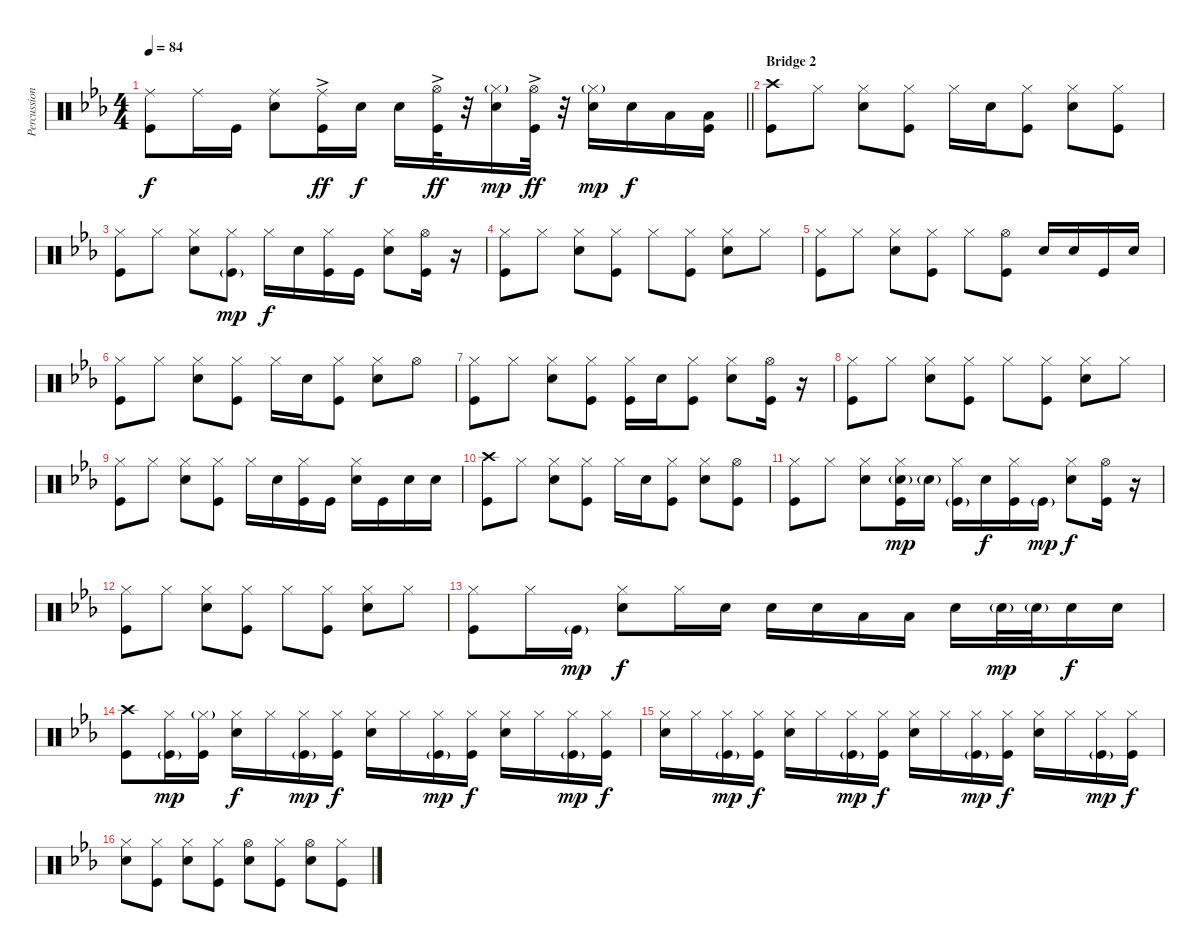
\track ("Percussion" "Percussion") {instrument percussion}
\staff {score}
\articulation defaults
\ts (4 4)
\tempo 84
\clef neutral
\barLineRight lightlight
\ks eb
("Ride (middle)" "Kick (hit)").8{dy f} "Ride (middle)".16 "Kick (hit)".16 ("Ride (middle)" "Snare (hit) 2").8 ("Ride (middle)" "Kick (hit)"{ac}).16{dy ff} "Snare (hit) 2".16{dy f} "Snare (hit) 2".16 ("Hi-Hat (open)" "Kick (hit)"{ac}).32{dy ff} r.32 ("Hi-Hat (closed)"{g} "Snare (hit) 2").16{dy mp} ("Hi-Hat (open)" "Kick (hit)"{ac}).32{dy ff} r.32 ("Hi-Hat (closed)"{g} "Snare (hit) 2").16{dy mp} "Snare (hit) 2".16{dy f} "Low Tom (hit)".16 ("Low Tom (hit)" "Kick (hit)").16 |
\section ("" "Bridge 2")
("Crash high (hit)" "Kick (hit)").8 "Hi-Hat (closed)".8 ("Hi-Hat (closed)" "Snare (hit) 2").8 ("Hi-Hat (closed)" "Kick (hit)").8 "Hi-Hat (closed)".16 "Snare (hit) 2".16 ("Hi-Hat (closed)" "Kick (hit)").8 ("Hi-Hat (closed)" "Snare (hit) 2").8 ("Hi-Hat (closed)" "Kick (hit)").8 |
("Hi-Hat (closed)" "Kick (hit)").8 "Hi-Hat (closed)".8 ("Hi-Hat (closed)" "Snare (hit) 2").8 ("Hi-Hat (closed)" "Kick (hit)"{g}).8{dy mp} "Hi-Hat (closed)".16{dy f} "Snare (hit) 2".16 ("Hi-Hat (closed)" "Kick (hit)").16 "Kick (hit)".16 ("Hi-Hat (closed)" "Snare (hit) 2").8 ("Hi-Hat (open)" "Kick (hit)").16 r.16 |
("Hi-Hat (closed)" "Kick (hit)").8 "Hi-Hat (closed)".8 ("Hi-Hat (closed)" "Snare (hit) 2").8 ("Hi-Hat (closed)" "Kick (hit)").8 "Hi-Hat (closed)".8 ("Hi-Hat (closed)" "Kick (hit)").8 ("Hi-Hat (closed)" "Snare (hit) 2").8 "Hi-Hat (closed)".8 |
("Hi-Hat (closed)" "Kick (hit)").8 "Hi-Hat (closed)".8 ("Hi-Hat (closed)" "Snare (hit) 2").8 ("Hi-Hat (closed)" "Kick (hit)").8 "Hi-Hat (closed)".8 ("Hi-Hat (open)" "Kick (hit)").8 "Snare (hit) 2".16 "Snare (hit) 2".16 "Kick (hit)".16 "Snare (hit) 2".16 |
("Hi-Hat (closed)" "Kick (hit)").8 "Hi-Hat (closed)".8 ("Hi-Hat (closed)" "Snare (hit) 2").8 ("Hi-Hat (closed)" "Kick (hit)").8 "Hi-Hat (closed)".16 "Snare (hit) 2".16 ("Hi-Hat (closed)" "Kick (hit)").8 ("Hi-Hat (closed)" "Snare (hit) 2").8 "Hi-Hat (open)".8 |
("Hi-Hat (closed)" "Kick (hit)").8 "Hi-Hat (closed)".8 ("Hi-Hat (closed)" "Snare (hit) 2").8 ("Hi-Hat (closed)" "Kick (hit)").8 ("Hi-Hat (closed)" "Kick (hit)").16 "Snare (hit) 2".16 ("Hi-Hat (closed)" "Kick (hit)").8 ("Hi-Hat (closed)" "Snare (hit) 2").8 ("Hi-Hat (open)" "Kick (hit)").16 r.16 |
("Hi-Hat (closed)" "Kick (hit)").8 "Hi-Hat (closed)".8 ("Hi-Hat (closed)" "Snare (hit) 2").8 ("Hi-Hat (closed)" "Kick (hit)").8 "Hi-Hat (closed)".8 ("Hi-Hat (closed)" "Kick (hit)").8 ("Hi-Hat (closed)" "Snare (hit) 2").8 "Hi-Hat (closed)".8 |
("Hi-Hat (closed)" "Kick (hit)").8 "Hi-Hat (closed)".8 ("Hi-Hat (closed)" "Snare (hit) 2").8 ("Hi-Hat (closed)" "Kick (hit)").8 "Hi-Hat (closed)".16 "Snare (hit) 2".16 ("Hi-Hat (closed)" "Kick (hit)").16 "Kick (hit)".16 ("Hi-Hat (closed)" "Snare (hit) 2").16 "Kick (hit)".16 "Snare (hit) 2".16 "Snare (hit) 2".16 |
("Crash high (hit)" "Kick (hit)").8 "Hi-Hat (closed)".8 ("Hi-Hat (closed)" "Snare (hit) 2").8 ("Hi-Hat (closed)" "Kick (hit)").8 "Hi-Hat (closed)".16 "Snare (hit) 2".16 ("Hi-Hat (closed)" "Kick (hit)").8 ("Hi-Hat (closed)" "Snare (hit) 2").8 ("Hi-Hat (open)" "Kick (hit)").8 |
("Hi-Hat (closed)" "Kick (hit)").8 "Hi-Hat (closed)".8 ("Hi-Hat (closed)" "Snare (hit) 2").8 ("Hi-Hat (closed)" "Snare (hit) 2"{g} "Kick (hit)").16{dy mp} "Snare (hit) 2"{g}.16 ("Hi-Hat (closed)" "Kick (hit)"{g}).16 "Snare (hit) 2".16{dy f} ("Hi-Hat (closed)" "Kick (hit)").16 "Kick (hit)"{g}.16{dy mp} ("Hi-Hat (closed)" "Snare (hit) 2").8{dy f} ("Hi-Hat (open)" "Kick (hit)").16 r.16 |
("Hi-Hat (closed)" "Kick (hit)").8 "Hi-Hat (closed)".8 ("Hi-Hat (closed)" "Snare (hit) 2").8 ("Hi-Hat (closed)" "Kick (hit)").8 "Hi-Hat (closed)".8 ("Hi-Hat (closed)" "Kick (hit)").8 ("Hi-Hat (closed)" "Snare (hit) 2").8 "Hi-Hat (closed)".8 |
("Hi-Hat (closed)" "Kick (hit)").8 "Hi-Hat (closed)".16 "Kick (hit)"{g}.16{dy mp} ("Hi-Hat (closed)" "Snare (hit) 2").8{dy f} "Hi-Hat (closed)".16 "Snare (hit) 2".16 "Snare (hit) 2".16 "Snare (hit) 2".16 "Low Tom (hit)".16 "Low Tom (hit)".16 "Snare (hit) 2".16 "Snare (hit) 2"{g}.32{dy mp} "Snare (hit) 2"{g}.32 "Snare (hit) 2".16{dy f} "Snare (hit) 2".16 |
("Crash high (hit)" "Kick (hit)").8 ("Hi-Hat (closed)" "Kick (hit)"{g}).16{dy mp} ("Hi-Hat (closed)"{g} "Kick (hit)").16 ("Hi-Hat (closed)" "Snare (hit) 2").16{dy f} "Hi-Hat (closed)".16 ("Hi-Hat (closed)" "Kick (hit)"{g}).16{dy mp} ("Hi-Hat (closed)" "Kick (hit)").16{dy f} ("Hi-Hat (closed)" "Snare (hit) 2").16 "Hi-Hat (closed)".16 ("Hi-Hat (closed)" "Kick (hit)"{g}).16{dy mp} ("Hi-Hat (closed)" "Kick (hit)").16{dy f} ("Hi-Hat (closed)" "Snare (hit) 2").16 "Hi-Hat (closed)".16 ("Hi-Hat (closed)" "Kick (hit)"{g}).16{dy mp} ("Hi-Hat (closed)" "Kick (hit)").16{dy f} |
("Hi-Hat (closed)" "Snare (hit) 2").16 "Hi-Hat (closed)".16 ("Hi-Hat (closed)" "Kick (hit)"{g}).16{dy mp} ("Hi-Hat (closed)" "Kick (hit)").16{dy f} ("Hi-Hat (closed)" "Snare (hit) 2").16 "Hi-Hat (closed)".16 ("Hi-Hat (closed)" "Kick (hit)"{g}).16{dy mp} ("Hi-Hat (closed)" "Kick (hit)").16{dy f} ("Hi-Hat (closed)" "Snare (hit) 2").16 "Hi-Hat (closed)".16 ("Hi-Hat (closed)" "Kick (hit)"{g}).16{dy mp} ("Hi-Hat (closed)" "Kick (hit)").16{dy f} ("Hi-Hat (closed)" "Snare (hit) 2").16 "Hi-Hat (closed)".16 ("Hi-Hat (closed)" "Kick (hit)"{g}).16{dy mp} ("Hi-Hat (closed)" "Kick (hit)").16{dy f} |
("Hi-Hat (closed)" "Snare (hit) 2").8 ("Hi-Hat (closed)" "Kick (hit)").8 ("Hi-Hat (closed)" "Snare (hit) 2").8 ("Hi-Hat (closed)" "Kick (hit)").8 ("Hi-Hat (open)" "Snare (hit) 2").8 ("Hi-Hat (closed)" "Kick (hit)").8 ("Hi-Hat (open)" "Snare (hit) 2").8 ("Hi-Hat (closed)" "Kick (hit)").8
